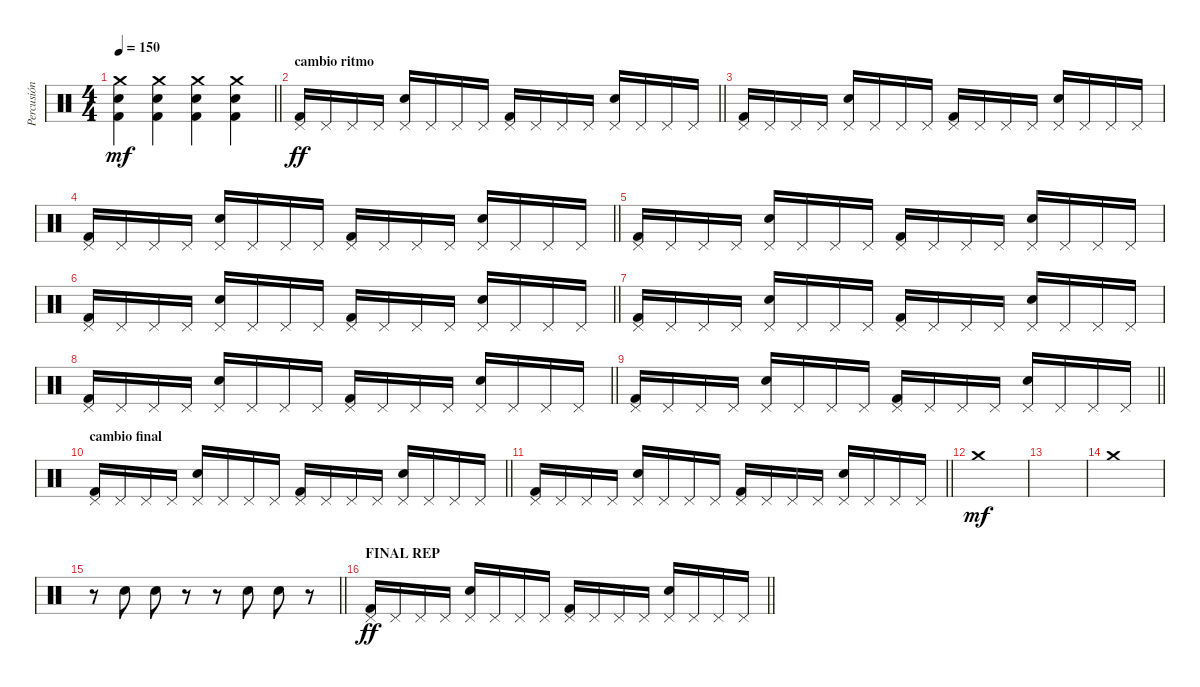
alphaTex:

\track ("Percusión" "Percusión") {instrument percussion}
\staff {score}
\articulation defaults
\ts (4 4)
\tempo 150
\clef neutral
\barLineRight lightlight
\ks c
("Crash medium (hit)" "Electric Snare (hit)" "Kick (hit) 2").4{dy mf} ("Crash medium (hit)" "Electric Snare (hit)" "Kick (hit) 2").4 ("Crash medium (hit)" "Electric Snare (hit)" "Kick (hit) 2").4 ("Crash medium (hit)" "Electric Snare (hit)" "Kick (hit) 2").4 |
\section ("" "cambio ritmo")
\barLineRight lightlight
("Pedal Hi-Hat (hit)" "Kick (hit) 2").16{dy ff} "Pedal Hi-Hat (hit)".16 "Pedal Hi-Hat (hit)".16 "Pedal Hi-Hat (hit)".16 ("Pedal Hi-Hat (hit)" "Electric Snare (hit)").16 "Pedal Hi-Hat (hit)".16 "Pedal Hi-Hat (hit)".16 "Pedal Hi-Hat (hit)".16 ("Pedal Hi-Hat (hit)" "Kick (hit) 2").16 "Pedal Hi-Hat (hit)".16 "Pedal Hi-Hat (hit)".16 "Pedal Hi-Hat (hit)".16 ("Pedal Hi-Hat (hit)" "Electric Snare (hit)").16 "Pedal Hi-Hat (hit)".16 "Pedal Hi-Hat (hit)".16 "Pedal Hi-Hat (hit)".16 |
("Pedal Hi-Hat (hit)" "Kick (hit) 2").16 "Pedal Hi-Hat (hit)".16 "Pedal Hi-Hat (hit)".16 "Pedal Hi-Hat (hit)".16 ("Pedal Hi-Hat (hit)" "Electric Snare (hit)").16 "Pedal Hi-Hat (hit)".16 "Pedal Hi-Hat (hit)".16 "Pedal Hi-Hat (hit)".16 ("Pedal Hi-Hat (hit)" "Kick (hit) 2").16 "Pedal Hi-Hat (hit)".16 "Pedal Hi-Hat (hit)".16 "Pedal Hi-Hat (hit)".16 ("Pedal Hi-Hat (hit)" "Electric Snare (hit)").16 "Pedal Hi-Hat (hit)".16 "Pedal Hi-Hat (hit)".16 "Pedal Hi-Hat (hit)".16 |
\barLineRight lightlight
("Pedal Hi-Hat (hit)" "Kick (hit) 2").16 "Pedal Hi-Hat (hit)".16 "Pedal Hi-Hat (hit)".16 "Pedal Hi-Hat (hit)".16 ("Pedal Hi-Hat (hit)" "Electric Snare (hit)").16 "Pedal Hi-Hat (hit)".16 "Pedal Hi-Hat (hit)".16 "Pedal Hi-Hat (hit)".16 ("Pedal Hi-Hat (hit)" "Kick (hit) 2").16 "Pedal Hi-Hat (hit)".16 "Pedal Hi-Hat (hit)".16 "Pedal Hi-Hat (hit)".16 ("Pedal Hi-Hat (hit)" "Electric Snare (hit)").16 "Pedal Hi-Hat (hit)".16 "Pedal Hi-Hat (hit)".16 "Pedal Hi-Hat (hit)".16 |
("Pedal Hi-Hat (hit)" "Kick (hit) 2").16 "Pedal Hi-Hat (hit)".16 "Pedal Hi-Hat (hit)".16 "Pedal Hi-Hat (hit)".16 ("Pedal Hi-Hat (hit)" "Electric Snare (hit)").16 "Pedal Hi-Hat (hit)".16 "Pedal Hi-Hat (hit)".16 "Pedal Hi-Hat (hit)".16 ("Pedal Hi-Hat (hit)" "Kick (hit) 2").16 "Pedal Hi-Hat (hit)".16 "Pedal Hi-Hat (hit)".16 "Pedal Hi-Hat (hit)".16 ("Pedal Hi-Hat (hit)" "Electric Snare (hit)").16 "Pedal Hi-Hat (hit)".16 "Pedal Hi-Hat (hit)".16 "Pedal Hi-Hat (hit)".16 |
\barLineRight lightlight
("Pedal Hi-Hat (hit)" "Kick (hit) 2").16 "Pedal Hi-Hat (hit)".16 "Pedal Hi-Hat (hit)".16 "Pedal Hi-Hat (hit)".16 ("Pedal Hi-Hat (hit)" "Electric Snare (hit)").16 "Pedal Hi-Hat (hit)".16 "Pedal Hi-Hat (hit)".16 "Pedal Hi-Hat (hit)".16 ("Pedal Hi-Hat (hit)" "Kick (hit) 2").16 "Pedal Hi-Hat (hit)".16 "Pedal Hi-Hat (hit)".16 "Pedal Hi-Hat (hit)".16 ("Pedal Hi-Hat (hit)" "Electric Snare (hit)").16 "Pedal Hi-Hat (hit)".16 "Pedal Hi-Hat (hit)".16 "Pedal Hi-Hat (hit)".16 |
("Pedal Hi-Hat (hit)" "Kick (hit) 2").16 "Pedal Hi-Hat (hit)".16 "Pedal Hi-Hat (hit)".16 "Pedal Hi-Hat (hit)".16 ("Pedal Hi-Hat (hit)" "Electric Snare (hit)").16 "Pedal Hi-Hat (hit)".16 "Pedal Hi-Hat (hit)".16 "Pedal Hi-Hat (hit)".16 ("Pedal Hi-Hat (hit)" "Kick (hit) 2").16 "Pedal Hi-Hat (hit)".16 "Pedal Hi-Hat (hit)".16 "Pedal Hi-Hat (hit)".16 ("Pedal Hi-Hat (hit)" "Electric Snare (hit)").16 "Pedal Hi-Hat (hit)".16 "Pedal Hi-Hat (hit)".16 "Pedal Hi-Hat (hit)".16 |
\barLineRight lightlight
("Pedal Hi-Hat (hit)" "Kick (hit) 2").16 "Pedal Hi-Hat (hit)".16 "Pedal Hi-Hat (hit)".16 "Pedal Hi-Hat (hit)".16 ("Pedal Hi-Hat (hit)" "Electric Snare (hit)").16 "Pedal Hi-Hat (hit)".16 "Pedal Hi-Hat (hit)".16 "Pedal Hi-Hat (hit)".16 ("Pedal Hi-Hat (hit)" "Kick (hit) 2").16 "Pedal Hi-Hat (hit)".16 "Pedal Hi-Hat (hit)".16 "Pedal Hi-Hat (hit)".16 ("Pedal Hi-Hat (hit)" "Electric Snare (hit)").16 "Pedal Hi-Hat (hit)".16 "Pedal Hi-Hat (hit)".16 "Pedal Hi-Hat (hit)".16 |
\barLineRight lightlight
("Pedal Hi-Hat (hit)" "Kick (hit) 2").16 "Pedal Hi-Hat (hit)".16 "Pedal Hi-Hat (hit)".16 "Pedal Hi-Hat (hit)".16 ("Pedal Hi-Hat (hit)" "Electric Snare (hit)").16 "Pedal Hi-Hat (hit)".16 "Pedal Hi-Hat (hit)".16 "Pedal Hi-Hat (hit)".16 ("Pedal Hi-Hat (hit)" "Kick (hit) 2").16 "Pedal Hi-Hat (hit)".16 "Pedal Hi-Hat (hit)".16 "Pedal Hi-Hat (hit)".16 ("Pedal Hi-Hat (hit)" "Electric Snare (hit)").16 "Pedal Hi-Hat (hit)".16 "Pedal Hi-Hat (hit)".16 "Pedal Hi-Hat (hit)".16 |
\section ("" "cambio final")
\barLineRight lightlight
("Pedal Hi-Hat (hit)" "Kick (hit) 2").16 "Pedal Hi-Hat (hit)".16 "Pedal Hi-Hat (hit)".16 "Pedal Hi-Hat (hit)".16 ("Pedal Hi-Hat (hit)" "Electric Snare (hit)").16 "Pedal Hi-Hat (hit)".16 "Pedal Hi-Hat (hit)".16 "Pedal Hi-Hat (hit)".16 ("Pedal Hi-Hat (hit)" "Kick (hit) 2").16 "Pedal Hi-Hat (hit)".16 "Pedal Hi-Hat (hit)".16 "Pedal Hi-Hat (hit)".16 ("Pedal Hi-Hat (hit)" "Electric Snare (hit)").16 "Pedal Hi-Hat (hit)".16 "Pedal Hi-Hat (hit)".16 "Pedal Hi-Hat (hit)".16 |
\barLineRight lightlight
("Pedal Hi-Hat (hit)" "Kick (hit) 2").16 "Pedal Hi-Hat (hit)".16 "Pedal Hi-Hat (hit)".16 "Pedal Hi-Hat (hit)".16 ("Pedal Hi-Hat (hit)" "Electric Snare (hit)").16 "Pedal Hi-Hat (hit)".16 "Pedal Hi-Hat (hit)".16 "Pedal Hi-Hat (hit)".16 ("Pedal Hi-Hat (hit)" "Kick (hit) 2").16 "Pedal Hi-Hat (hit)".16 "Pedal Hi-Hat (hit)".16 "Pedal Hi-Hat (hit)".16 ("Pedal Hi-Hat (hit)" "Electric Snare (hit)").16 "Pedal Hi-Hat (hit)".16 "Pedal Hi-Hat (hit)".16 "Pedal Hi-Hat (hit)".16 |
"Crash medium (hit)".1{dy mf} |
|
"Crash medium (hit)".1 |
\barLineRight lightlight
r.8 "Electric Snare (hit)".8 "Electric Snare (hit)".8 r.8 r.8 "Electric Snare (hit)".8 "Electric Snare (hit)".8 r.8 |
\section ("" "FINAL REP")
\barLineRight lightlight
("Pedal Hi-Hat (hit)" "Kick (hit) 2").16{dy ff} "Pedal Hi-Hat (hit)".16 "Pedal Hi-Hat (hit)".16 "Pedal Hi-Hat (hit)".16 ("Pedal Hi-Hat (hit)" "Electric Snare (hit)").16 "Pedal Hi-Hat (hit)".16 "Pedal Hi-Hat (hit)".16 "Pedal Hi-Hat (hit)".16 ("Pedal Hi-Hat (hit)" "Kick (hit) 2").16 "Pedal Hi-Hat (hit)".16 "Pedal Hi-Hat (hit)".16 "Pedal Hi-Hat (hit)".16 ("Pedal Hi-Hat (hit)" "Electric Snare (hit)").16 "Pedal Hi-Hat (hit)".16 "Pedal Hi-Hat (hit)".16 "Pedal Hi-Hat (hit)".16
